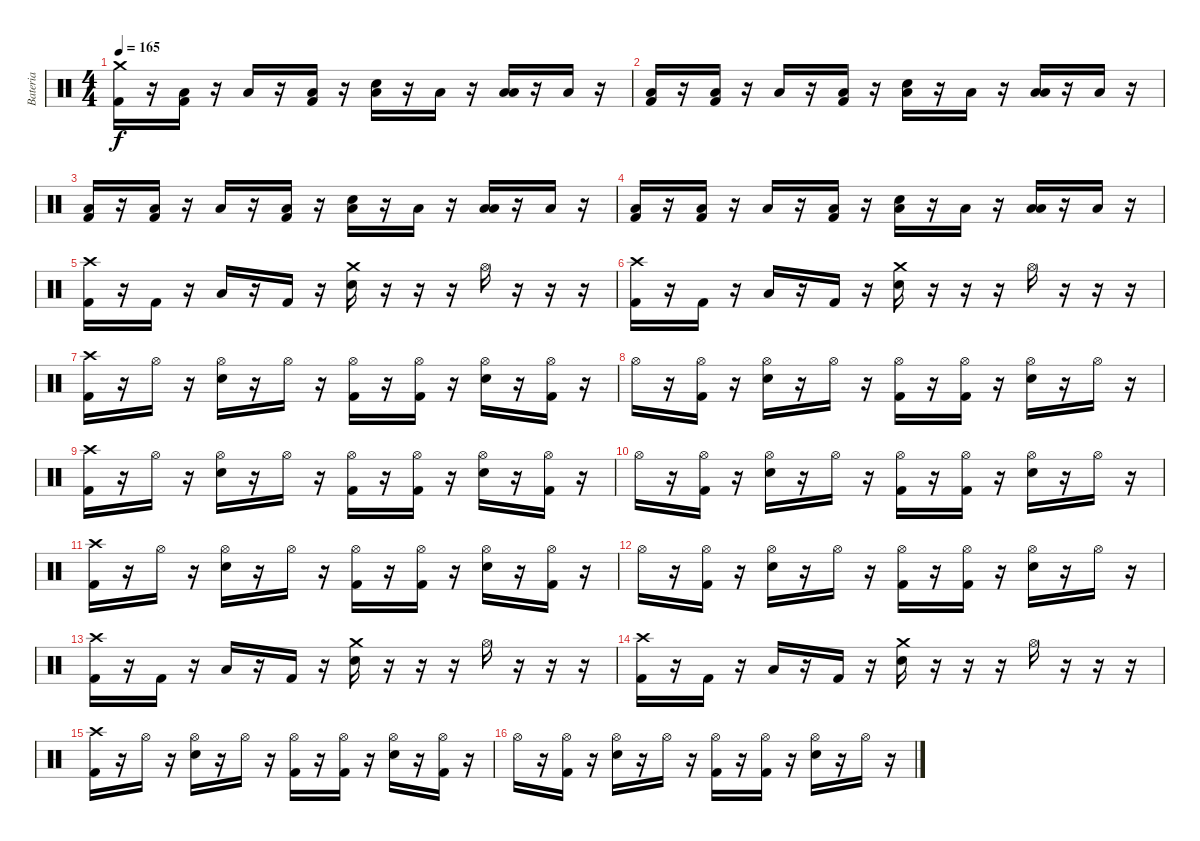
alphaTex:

\track ("Bateria" "Bateria") {instrument percussion}
\staff {score}
\articulation defaults
\ts (4 4)
\tempo 165
\clef neutral
\ks c
("Crash medium (hit)" "Kick (hit) 2").16{dy f} r.16 ("Low Floor Tom (hit)" "Kick (hit) 2").16 r.16 "Low Floor Tom (hit)".16 r.16 ("Low Floor Tom (hit)" "Kick (hit) 2").16 r.16 ("Low Floor Tom (hit)" "Electric Snare (hit)").16 r.16 "Low Floor Tom (hit)".16 r.16 ("Low Floor Tom (hit)" "Low Tom (hit)").16 r.16 "Low Floor Tom (hit)".16 r.16 |
("Low Floor Tom (hit)" "Kick (hit) 2").16 r.16 ("Low Floor Tom (hit)" "Kick (hit) 2").16 r.16 "Low Floor Tom (hit)".16 r.16 ("Low Floor Tom (hit)" "Kick (hit) 2").16 r.16 ("Low Floor Tom (hit)" "Electric Snare (hit)").16 r.16 "Low Floor Tom (hit)".16 r.16 ("Low Floor Tom (hit)" "Low Tom (hit)").16 r.16 "Low Floor Tom (hit)".16 r.16 |
("Low Floor Tom (hit)" "Kick (hit) 2").16 r.16 ("Low Floor Tom (hit)" "Kick (hit) 2").16 r.16 "Low Floor Tom (hit)".16 r.16 ("Low Floor Tom (hit)" "Kick (hit) 2").16 r.16 ("Low Floor Tom (hit)" "Electric Snare (hit)").16 r.16 "Low Floor Tom (hit)".16 r.16 ("Low Floor Tom (hit)" "Low Tom (hit)").16 r.16 "Low Floor Tom (hit)".16 r.16 |
("Low Floor Tom (hit)" "Kick (hit) 2").16 r.16 ("Low Floor Tom (hit)" "Kick (hit) 2").16 r.16 "Low Floor Tom (hit)".16 r.16 ("Low Floor Tom (hit)" "Kick (hit) 2").16 r.16 ("Low Floor Tom (hit)" "Electric Snare (hit)").16 r.16 "Low Floor Tom (hit)".16 r.16 ("Low Floor Tom (hit)" "Low Tom (hit)").16 r.16 "Low Floor Tom (hit)".16 r.16 |
("Crash high (hit)" "Kick (hit) 2").16 r.16 "Kick (hit) 2".16 r.16 "Low Floor Tom (hit)".16 r.16 "Kick (hit) 2".16 r.16 ("Crash medium (hit)" "Electric Snare (hit)").16 r.16 r.16 r.16 "Hi-Hat (open)".16 r.16 r.16 r.16 |
("Crash high (hit)" "Kick (hit) 2").16 r.16 "Kick (hit) 2".16 r.16 "Low Floor Tom (hit)".16 r.16 "Kick (hit) 2".16 r.16 ("Crash medium (hit)" "Electric Snare (hit)").16 r.16 r.16 r.16 "Hi-Hat (open)".16 r.16 r.16 r.16 |
("Crash high (hit)" "Kick (hit) 2").16 r.16 "Hi-Hat (open)".16 r.16 ("Hi-Hat (open)" "Electric Snare (hit)").16 r.16 "Hi-Hat (open)".16 r.16 ("Hi-Hat (open)" "Kick (hit) 2").16 r.16 ("Hi-Hat (open)" "Kick (hit) 2").16 r.16 ("Hi-Hat (open)" "Electric Snare (hit)").16 r.16 ("Hi-Hat (open)" "Kick (hit) 2").16 r.16 |
"Hi-Hat (open)".16 r.16 ("Hi-Hat (open)" "Kick (hit) 2").16 r.16 ("Hi-Hat (open)" "Electric Snare (hit)").16 r.16 "Hi-Hat (open)".16 r.16 ("Hi-Hat (open)" "Kick (hit) 2").16 r.16 ("Hi-Hat (open)" "Kick (hit) 2").16 r.16 ("Hi-Hat (open)" "Electric Snare (hit)").16 r.16 "Hi-Hat (open)".16 r.16 |
("Crash high (hit)" "Kick (hit) 2").16 r.16 "Hi-Hat (open)".16 r.16 ("Hi-Hat (open)" "Electric Snare (hit)").16 r.16 "Hi-Hat (open)".16 r.16 ("Hi-Hat (open)" "Kick (hit) 2").16 r.16 ("Hi-Hat (open)" "Kick (hit) 2").16 r.16 ("Hi-Hat (open)" "Electric Snare (hit)").16 r.16 ("Hi-Hat (open)" "Kick (hit) 2").16 r.16 |
"Hi-Hat (open)".16 r.16 ("Hi-Hat (open)" "Kick (hit) 2").16 r.16 ("Hi-Hat (open)" "Electric Snare (hit)").16 r.16 "Hi-Hat (open)".16 r.16 ("Hi-Hat (open)" "Kick (hit) 2").16 r.16 ("Hi-Hat (open)" "Kick (hit) 2").16 r.16 ("Hi-Hat (open)" "Electric Snare (hit)").16 r.16 "Hi-Hat (open)".16 r.16 |
("Crash high (hit)" "Kick (hit) 2").16 r.16 "Hi-Hat (open)".16 r.16 ("Hi-Hat (open)" "Electric Snare (hit)").16 r.16 "Hi-Hat (open)".16 r.16 ("Hi-Hat (open)" "Kick (hit) 2").16 r.16 ("Hi-Hat (open)" "Kick (hit) 2").16 r.16 ("Hi-Hat (open)" "Electric Snare (hit)").16 r.16 ("Hi-Hat (open)" "Kick (hit) 2").16 r.16 |
"Hi-Hat (open)".16 r.16 ("Hi-Hat (open)" "Kick (hit) 2").16 r.16 ("Hi-Hat (open)" "Electric Snare (hit)").16 r.16 "Hi-Hat (open)".16 r.16 ("Hi-Hat (open)" "Kick (hit) 2").16 r.16 ("Hi-Hat (open)" "Kick (hit) 2").16 r.16 ("Hi-Hat (open)" "Electric Snare (hit)").16 r.16 "Hi-Hat (open)".16 r.16 |
("Crash high (hit)" "Kick (hit) 2").16 r.16 "Kick (hit) 2".16 r.16 "Low Floor Tom (hit)".16 r.16 "Kick (hit) 2".16 r.16 ("Crash medium (hit)" "Electric Snare (hit)").16 r.16 r.16 r.16 "Hi-Hat (open)".16 r.16 r.16 r.16 |
("Crash high (hit)" "Kick (hit) 2").16 r.16 "Kick (hit) 2".16 r.16 "Low Floor Tom (hit)".16 r.16 "Kick (hit) 2".16 r.16 ("Crash medium (hit)" "Electric Snare (hit)").16 r.16 r.16 r.16 "Hi-Hat (open)".16 r.16 r.16 r.16 |
("Crash high (hit)" "Kick (hit) 2").16 r.16 "Hi-Hat (open)".16 r.16 ("Hi-Hat (open)" "Electric Snare (hit)").16 r.16 "Hi-Hat (open)".16 r.16 ("Hi-Hat (open)" "Kick (hit) 2").16 r.16 ("Hi-Hat (open)" "Kick (hit) 2").16 r.16 ("Hi-Hat (open)" "Electric Snare (hit)").16 r.16 ("Hi-Hat (open)" "Kick (hit) 2").16 r.16 |
"Hi-Hat (open)".16 r.16 ("Hi-Hat (open)" "Kick (hit) 2").16 r.16 ("Hi-Hat (open)" "Electric Snare (hit)").16 r.16 "Hi-Hat (open)".16 r.16 ("Hi-Hat (open)" "Kick (hit) 2").16 r.16 ("Hi-Hat (open)" "Kick (hit) 2").16 r.16 ("Hi-Hat (open)" "Electric Snare (hit)").16 r.16 "Hi-Hat (open)".16 r.16
